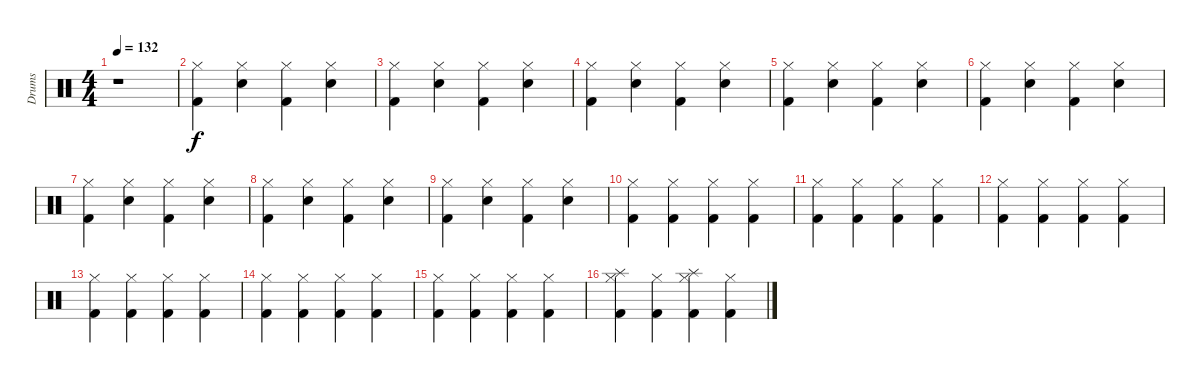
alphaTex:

\track ("Drums" "Drums") {instrument percussion}
\staff {score}
\articulation defaults
\ts (4 4)
\tempo 132
\clef neutral
\ks c
r.1{dy f} |
("Hi-Hat (closed)" "Kick (hit) 2").4 ("Hi-Hat (closed)" "Snare (hit) 2").4 ("Hi-Hat (closed)" "Kick (hit) 2").4 ("Hi-Hat (closed)" "Snare (hit) 2").4 |
("Hi-Hat (closed)" "Kick (hit) 2").4 ("Hi-Hat (closed)" "Snare (hit) 2").4 ("Hi-Hat (closed)" "Kick (hit) 2").4 ("Hi-Hat (closed)" "Snare (hit) 2").4 |
("Hi-Hat (closed)" "Kick (hit) 2").4 ("Hi-Hat (closed)" "Snare (hit) 2").4 ("Hi-Hat (closed)" "Kick (hit) 2").4 ("Hi-Hat (closed)" "Snare (hit) 2").4 |
("Hi-Hat (closed)" "Kick (hit) 2").4 ("Hi-Hat (closed)" "Snare (hit) 2").4 ("Hi-Hat (closed)" "Kick (hit) 2").4 ("Hi-Hat (closed)" "Snare (hit) 2").4 |
("Hi-Hat (closed)" "Kick (hit) 2").4 ("Hi-Hat (closed)" "Snare (hit) 2").4 ("Hi-Hat (closed)" "Kick (hit) 2").4 ("Hi-Hat (closed)" "Snare (hit) 2").4 |
("Hi-Hat (closed)" "Kick (hit) 2").4 ("Hi-Hat (closed)" "Snare (hit) 2").4 ("Hi-Hat (closed)" "Kick (hit) 2").4 ("Hi-Hat (closed)" "Snare (hit) 2").4 |
("Hi-Hat (closed)" "Kick (hit) 2").4 ("Hi-Hat (closed)" "Snare (hit) 2").4 ("Hi-Hat (closed)" "Kick (hit) 2").4 ("Hi-Hat (closed)" "Snare (hit) 2").4 |
("Hi-Hat (closed)" "Kick (hit) 2").4 ("Hi-Hat (closed)" "Snare (hit) 2").4 ("Hi-Hat (closed)" "Kick (hit) 2").4 ("Hi-Hat (closed)" "Snare (hit) 2").4 |
("Hi-Hat (closed)" "Kick (hit) 2").4 ("Hi-Hat (closed)" "Kick (hit) 2").4 ("Hi-Hat (closed)" "Kick (hit) 2").4 ("Hi-Hat (closed)" "Kick (hit) 2").4 |
("Kick (hit) 2" "Hi-Hat (closed)").4 ("Kick (hit) 2" "Hi-Hat (closed)").4 ("Kick (hit) 2" "Hi-Hat (closed)").4 ("Kick (hit) 2" "Hi-Hat (closed)").4 |
("Hi-Hat (closed)" "Kick (hit) 2").4 ("Hi-Hat (closed)" "Kick (hit) 2").4 ("Hi-Hat (closed)" "Kick (hit) 2").4 ("Hi-Hat (closed)" "Kick (hit) 2").4 |
("Kick (hit) 2" "Hi-Hat (closed)").4 ("Kick (hit) 2" "Hi-Hat (closed)").4 ("Kick (hit) 2" "Hi-Hat (closed)").4 ("Kick (hit) 2" "Hi-Hat (closed)").4 |
("Kick (hit) 2" "Hi-Hat (closed)").4 ("Kick (hit) 2" "Hi-Hat (closed)").4 ("Kick (hit) 2" "Hi-Hat (closed)").4 ("Kick (hit) 2" "Hi-Hat (closed)").4 |
("Hi-Hat (closed)" "Kick (hit) 2").4 ("Hi-Hat (closed)" "Kick (hit) 2").4 ("Hi-Hat (closed)" "Kick (hit) 2").4 ("Hi-Hat (closed)" "Kick (hit) 2").4 |
("Splash (hit)" "Kick (hit) 2" "Hi-Hat (closed)").4 ("Kick (hit) 2" "Hi-Hat (closed)").4 ("Splash (hit)" "Kick (hit) 2" "Hi-Hat (closed)").4 ("Kick (hit) 2" "Hi-Hat (closed)").4
